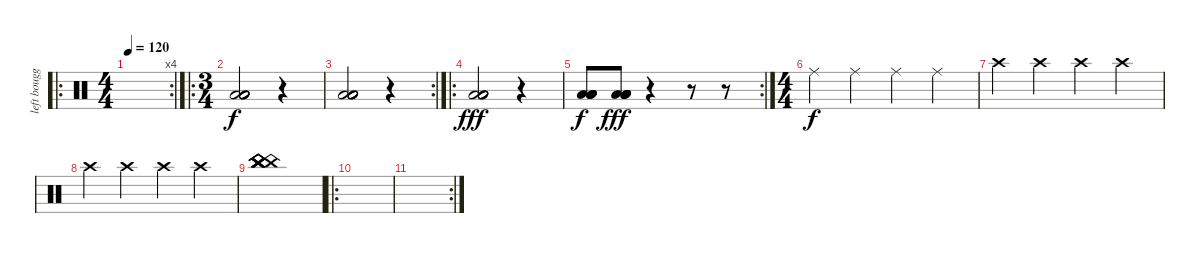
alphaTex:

\track ("left bouggie" "left bougg") {instrument percussion}
\staff {score}
\articulation defaults
\ro
\rc 4
\ts (4 4)
\tempo 120
\clef neutral
\ks c
|
\ro
\ts (3 4)
("Low Floor Tom (hit)" "Low Floor Tom (hit)" "Low Floor Tom (hit)" "Low Floor Tom (hit)" "Low Floor Tom (hit)").2 r.4 |
\rc 2
("Low Floor Tom (hit)" "Low Floor Tom (hit)" "Low Floor Tom (hit)" "Low Floor Tom (hit)" "Low Floor Tom (hit)").2 r.4 |
\ro
("Low Floor Tom (hit)" "Low Floor Tom (hit)" "Low Floor Tom (hit)" "Low Floor Tom (hit)" "Low Floor Tom (hit)").2{dy fff} r.4 |
\rc 2
("Low Floor Tom (hit)" "Low Floor Tom (hit)" "Low Floor Tom (hit)" "Low Floor Tom (hit)" "Low Floor Tom (hit)").8{dy f} ("Low Floor Tom (hit)" "Low Floor Tom (hit)" "Low Floor Tom (hit)" "Low Floor Tom (hit)" "Low Floor Tom (hit)").8{dy fff} r.4 r.8 r.8 |
\ts (4 4)
"Ride (middle)".4{dy f} "Ride (middle)".4 "Ride (middle)".4 "Ride (middle)".4 |
"Crash high (hit)".4 "Crash high (hit)".4 "Crash high (hit)".4 "Crash high (hit)".4 |
"Crash high (hit)".4 "Crash high (hit)".4 "Crash high (hit)".4 "Crash high (hit)".4 |
("China (hit)" "China (hit)" "China (hit)" "China (hit)" "China (hit)" "China (hit)").1 |
\ro
|
\rc 2
